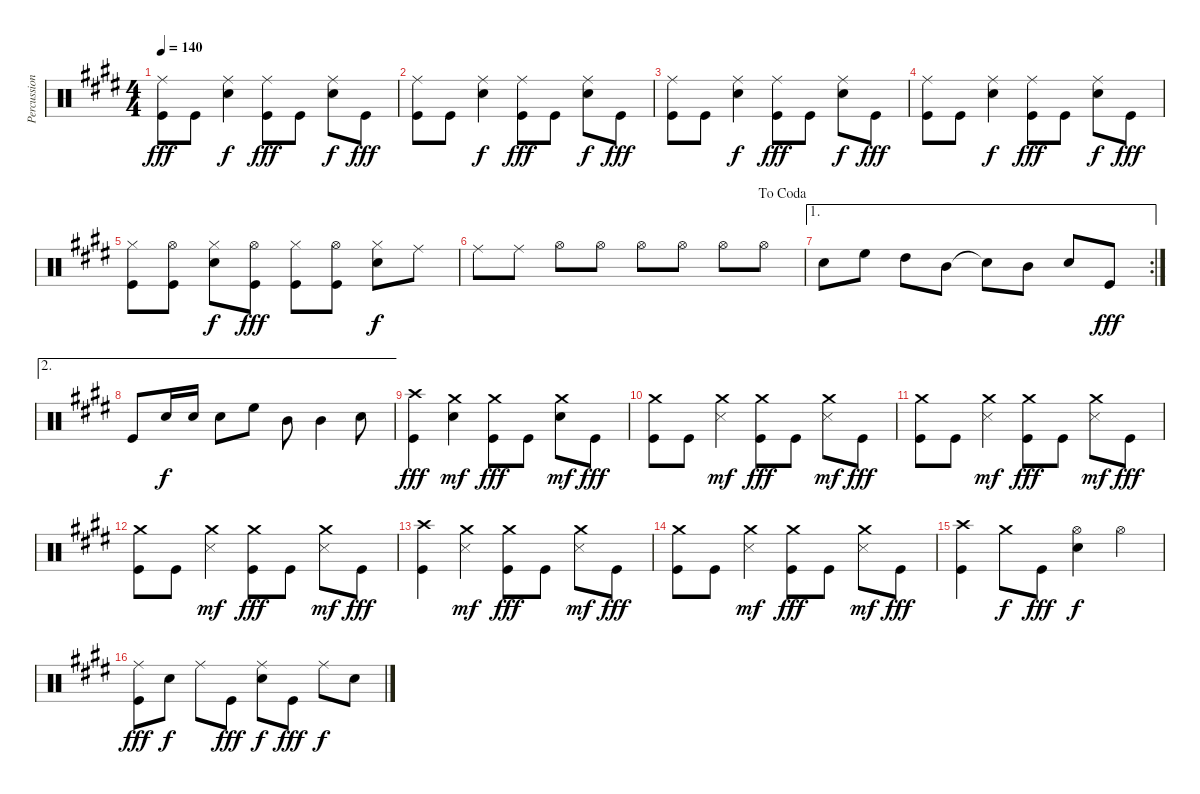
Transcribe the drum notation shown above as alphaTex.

\track ("Percussion" "Percussion") {instrument percussion}
\staff {score}
\articulation defaults
\ts (4 4)
\tempo 140
\clef neutral
\ks e
("Ride (middle)" "Kick (hit)").8{dy fff} "Kick (hit)".8 ("Ride (middle)" "Snare (hit) 2").4{dy f} ("Ride (middle)" "Kick (hit)").8{dy fff} "Kick (hit)".8 ("Ride (middle)" "Snare (hit) 2").8{dy f} "Kick (hit)".8{dy fff} |
("Ride (middle)" "Kick (hit)").8 "Kick (hit)".8 ("Ride (middle)" "Snare (hit) 2").4{dy f} ("Ride (middle)" "Kick (hit)").8{dy fff} "Kick (hit)".8 ("Ride (middle)" "Snare (hit) 2").8{dy f} "Kick (hit)".8{dy fff} |
("Ride (middle)" "Kick (hit)").8 "Kick (hit)".8 ("Ride (middle)" "Snare (hit) 2").4{dy f} ("Ride (middle)" "Kick (hit)").8{dy fff} "Kick (hit)".8 ("Ride (middle)" "Snare (hit) 2").8{dy f} "Kick (hit)".8{dy fff} |
("Ride (middle)" "Kick (hit)").8 "Kick (hit)".8 ("Ride (middle)" "Snare (hit) 2").4{dy f} ("Ride (middle)" "Kick (hit)").8{dy fff} "Kick (hit)".8 ("Ride (middle)" "Snare (hit) 2").8{dy f} "Kick (hit)".8{dy fff} |
("Hi-Hat (closed)" "Kick (hit)").8 ("Hi-Hat (open)" "Kick (hit)").8 ("Hi-Hat (closed)" "Snare (hit) 2").8{dy f} ("Hi-Hat (open)" "Kick (hit)").8{dy fff} ("Hi-Hat (closed)" "Kick (hit)").8 ("Hi-Hat (open)" "Kick (hit)").8 ("Hi-Hat (closed)" "Snare (hit) 2").8{dy f} "Ride (middle)".8 |
\jump dacoda "Ride (middle)".8 "Ride (middle)".8 "Hi-Hat (open)".8 "Hi-Hat (open)".8 "Hi-Hat (open)".8 "Hi-Hat (open)".8 "Hi-Hat (open)".8 "Hi-Hat (open)".8
|
\ae 1
\rc 2 "Snare (hit) 2".8 "High Floor Tom (hit)".8 "High Tom (hit)".8 "Mid Tom (hit)".8 "Snare (hit)"{t}.8 "Mid Tom (hit)".8 "Snare (hit) 2".8 "Kick (hit)".8{dy fff}
|
\ae 2 "Kick (hit)".8 "Snare (hit) 2".16{dy f} "Snare (hit) 2".16 "Snare (hit) 2".8 "High Floor Tom (hit)".8 "Mid Tom (hit)".8 "Mid Tom (hit)".4 "Snare (hit) 2".8
|
("Crash high (hit)" "Kick (hit)").4{dy fff} ("Crash medium (hit)" "Snare (hit) 2").4{dy mf} ("Crash medium (hit)" "Kick (hit)").8{dy fff} "Kick (hit)".8 ("Crash medium (hit)" "Snare (hit) 2").8{dy mf} "Kick (hit)".8{dy fff} |
("Crash medium (hit)" "Kick (hit)").8 "Kick (hit)".8 ("Crash medium (hit)" "Snare (side stick) 3").4{dy mf} ("Crash medium (hit)" "Kick (hit)").8{dy fff} "Kick (hit)".8 ("Crash medium (hit)" "Snare (side stick) 3").8{dy mf} "Kick (hit)".8{dy fff} |
("Crash medium (hit)" "Kick (hit)").8 "Kick (hit)".8 ("Crash medium (hit)" "Snare (side stick) 3").4{dy mf} ("Crash medium (hit)" "Kick (hit)").8{dy fff} "Kick (hit)".8 ("Crash medium (hit)" "Snare (side stick) 3").8{dy mf} "Kick (hit)".8{dy fff} |
("Crash medium (hit)" "Kick (hit)").8 "Kick (hit)".8 ("Crash medium (hit)" "Snare (side stick) 3").4{dy mf} ("Crash medium (hit)" "Kick (hit)").8{dy fff} "Kick (hit)".8 ("Crash medium (hit)" "Snare (side stick) 3").8{dy mf} "Kick (hit)".8{dy fff} |
("Crash high (hit)" "Kick (hit)").4 ("Crash medium (hit)" "Snare (side stick) 3").4{dy mf} ("Crash medium (hit)" "Kick (hit)").8{dy fff} "Kick (hit)".8 ("Crash medium (hit)" "Snare (side stick) 3").8{dy mf} "Kick (hit)".8{dy fff} |
("Crash medium (hit)" "Kick (hit)").8 "Kick (hit)".8 ("Crash medium (hit)" "Snare (side stick) 3").4{dy mf} ("Crash medium (hit)" "Kick (hit)").8{dy fff} "Kick (hit)".8 ("Crash medium (hit)" "Snare (side stick) 3").8{dy mf} "Kick (hit)".8{dy fff} |
("Crash high (hit)" "Kick (hit)").4 "Crash medium (hit)".8{dy f} "Kick (hit)".8{dy fff} ("Hi-Hat (open)" "Snare (hit) 2").4{dy f} "Hi-Hat (open)".4 |
("Ride (middle)" "Kick (hit)").8{dy fff} "Snare (hit) 2".8{dy f} "Ride (middle)".8 "Kick (hit)".8{dy fff} ("Ride (middle)" "Snare (hit) 2").8{dy f} "Kick (hit)".8{dy fff} "Ride (middle)".8{dy f} "Snare (hit) 2".8
